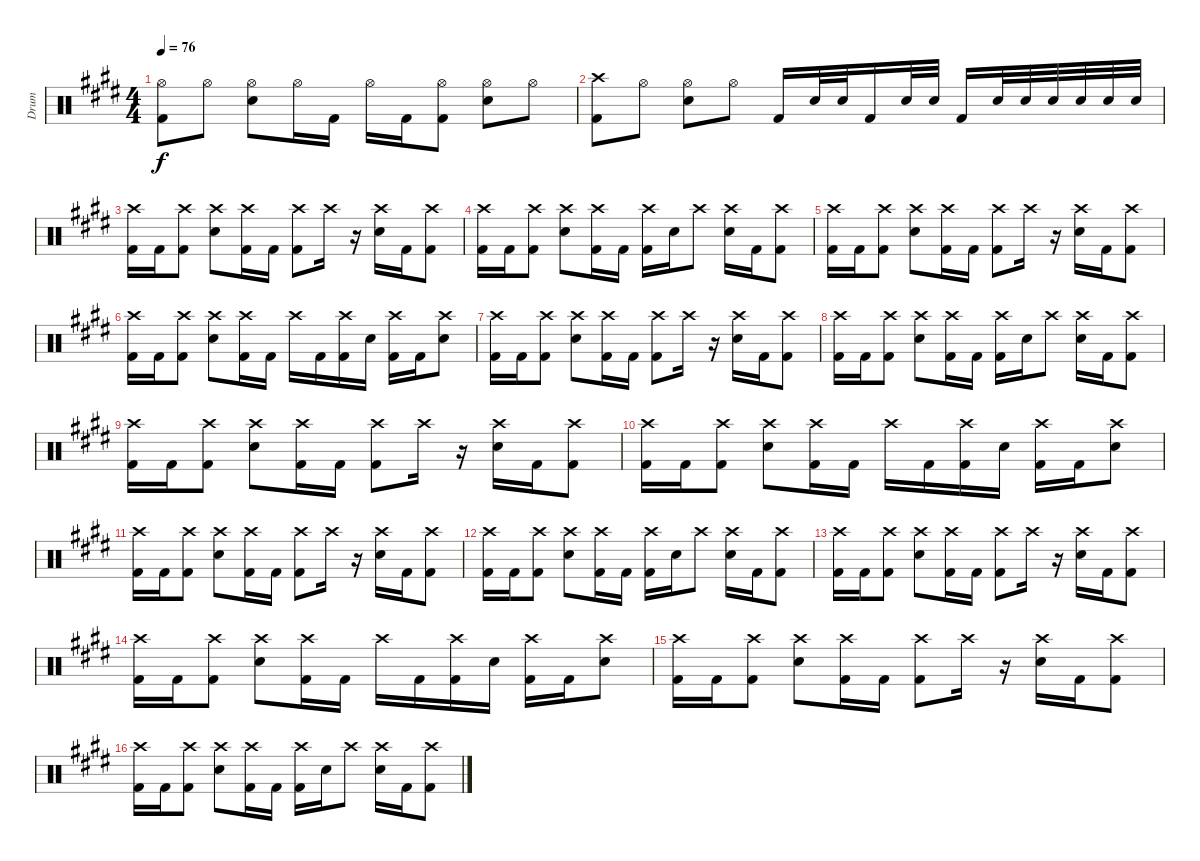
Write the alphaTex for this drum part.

\track ("Drum" "Drum") {instrument percussion}
\staff {score}
\articulation defaults
\ts (4 4)
\tempo 76
\clef neutral
\ks e
("Hi-Hat (open)" "Kick (hit) 2").8{dy f} "Hi-Hat (open)".8 ("Hi-Hat (open)" "Electric Snare (hit)").8 "Hi-Hat (open)".16 "Kick (hit) 2".16 "Hi-Hat (open)".16 "Kick (hit) 2".16 ("Hi-Hat (open)" "Kick (hit) 2").8 ("Hi-Hat (open)" "Electric Snare (hit)").8 "Hi-Hat (open)".8 |
("Crash high (hit)" "Kick (hit) 2").8 "Hi-Hat (open)".8 ("Hi-Hat (open)" "Electric Snare (hit)").8 "Hi-Hat (open)".8 "Kick (hit) 2".16 "Electric Snare (hit)".32 "Electric Snare (hit)".32 "Kick (hit) 2".16 "Electric Snare (hit)".32 "Electric Snare (hit)".32 "Kick (hit) 2".16 "Electric Snare (hit)".32 "Electric Snare (hit)".32 "Electric Snare (hit)".32 "Electric Snare (hit)".32 "Electric Snare (hit)".32 "Electric Snare (hit)".32 |
("Crash high (hit)" "Kick (hit) 2").16{volume 11} "Kick (hit) 2".16 ("Crash high (hit)" "Kick (hit) 2").8 ("Crash high (hit)" "Electric Snare (hit)").8 ("Crash high (hit)" "Kick (hit) 2").16 "Kick (hit) 2".16 ("Crash high (hit)" "Kick (hit) 2").8 "Crash high (hit)".16 r.16 ("Crash high (hit)" "Electric Snare (hit)").16 "Kick (hit) 2".16 ("Crash high (hit)" "Kick (hit) 2").8 |
("Crash high (hit)" "Kick (hit) 2").16 "Kick (hit) 2".16 ("Crash high (hit)" "Kick (hit) 2").8 ("Crash high (hit)" "Electric Snare (hit)").8 ("Crash high (hit)" "Kick (hit) 2").16 "Kick (hit) 2".16 ("Crash high (hit)" "Kick (hit) 2").16 "Electric Snare (hit)".16 "Crash high (hit)".8 ("Crash high (hit)" "Electric Snare (hit)").16 "Kick (hit) 2".16 ("Crash high (hit)" "Kick (hit) 2").8 |
("Crash high (hit)" "Kick (hit) 2").16{volume 11} "Kick (hit) 2".16 ("Crash high (hit)" "Kick (hit) 2").8 ("Crash high (hit)" "Electric Snare (hit)").8 ("Crash high (hit)" "Kick (hit) 2").16 "Kick (hit) 2".16 ("Crash high (hit)" "Kick (hit) 2").8 "Crash high (hit)".16 r.16 ("Crash high (hit)" "Electric Snare (hit)").16 "Kick (hit) 2".16 ("Crash high (hit)" "Kick (hit) 2").8 |
("Crash high (hit)" "Kick (hit) 2").16{volume 11} "Kick (hit) 2".16 ("Crash high (hit)" "Kick (hit) 2").8 ("Crash high (hit)" "Electric Snare (hit)").8 ("Crash high (hit)" "Kick (hit) 2").16 "Kick (hit) 2".16 "Crash high (hit)".16 "Kick (hit) 2".16 ("Crash high (hit)" "Kick (hit) 2").16 "Electric Snare (hit)".16 ("Crash high (hit)" "Kick (hit) 2").16 "Kick (hit) 2".16 ("Crash high (hit)" "Electric Snare (hit)").8 |
("Crash high (hit)" "Kick (hit) 2").16{volume 11} "Kick (hit) 2".16 ("Crash high (hit)" "Kick (hit) 2").8 ("Crash high (hit)" "Electric Snare (hit)").8 ("Crash high (hit)" "Kick (hit) 2").16 "Kick (hit) 2".16 ("Crash high (hit)" "Kick (hit) 2").8 "Crash high (hit)".16 r.16 ("Crash high (hit)" "Electric Snare (hit)").16 "Kick (hit) 2".16 ("Crash high (hit)" "Kick (hit) 2").8 |
("Crash high (hit)" "Kick (hit) 2").16 "Kick (hit) 2".16 ("Crash high (hit)" "Kick (hit) 2").8 ("Crash high (hit)" "Electric Snare (hit)").8 ("Crash high (hit)" "Kick (hit) 2").16 "Kick (hit) 2".16 ("Crash high (hit)" "Kick (hit) 2").16 "Electric Snare (hit)".16 "Crash high (hit)".8 ("Crash high (hit)" "Electric Snare (hit)").16 "Kick (hit) 2".16 ("Crash high (hit)" "Kick (hit) 2").8 |
("Crash high (hit)" "Kick (hit) 2").16{volume 11} "Kick (hit) 2".16 ("Crash high (hit)" "Kick (hit) 2").8 ("Crash high (hit)" "Electric Snare (hit)").8 ("Crash high (hit)" "Kick (hit) 2").16 "Kick (hit) 2".16 ("Crash high (hit)" "Kick (hit) 2").8 "Crash high (hit)".16 r.16 ("Crash high (hit)" "Electric Snare (hit)").16 "Kick (hit) 2".16 ("Crash high (hit)" "Kick (hit) 2").8 |
("Crash high (hit)" "Kick (hit) 2").16{volume 11} "Kick (hit) 2".16 ("Crash high (hit)" "Kick (hit) 2").8 ("Crash high (hit)" "Electric Snare (hit)").8 ("Crash high (hit)" "Kick (hit) 2").16 "Kick (hit) 2".16 "Crash high (hit)".16 "Kick (hit) 2".16 ("Crash high (hit)" "Kick (hit) 2").16 "Electric Snare (hit)".16 ("Crash high (hit)" "Kick (hit) 2").16 "Kick (hit) 2".16 ("Crash high (hit)" "Electric Snare (hit)").8 |
("Crash high (hit)" "Kick (hit) 2").16{volume 11} "Kick (hit) 2".16 ("Crash high (hit)" "Kick (hit) 2").8 ("Crash high (hit)" "Electric Snare (hit)").8 ("Crash high (hit)" "Kick (hit) 2").16 "Kick (hit) 2".16 ("Crash high (hit)" "Kick (hit) 2").8 "Crash high (hit)".16 r.16 ("Crash high (hit)" "Electric Snare (hit)").16 "Kick (hit) 2".16 ("Crash high (hit)" "Kick (hit) 2").8 |
("Crash high (hit)" "Kick (hit) 2").16 "Kick (hit) 2".16 ("Crash high (hit)" "Kick (hit) 2").8 ("Crash high (hit)" "Electric Snare (hit)").8 ("Crash high (hit)" "Kick (hit) 2").16 "Kick (hit) 2".16 ("Crash high (hit)" "Kick (hit) 2").16 "Electric Snare (hit)".16 "Crash high (hit)".8 ("Crash high (hit)" "Electric Snare (hit)").16 "Kick (hit) 2".16 ("Crash high (hit)" "Kick (hit) 2").8 |
("Crash high (hit)" "Kick (hit) 2").16{volume 11} "Kick (hit) 2".16 ("Crash high (hit)" "Kick (hit) 2").8 ("Crash high (hit)" "Electric Snare (hit)").8 ("Crash high (hit)" "Kick (hit) 2").16 "Kick (hit) 2".16 ("Crash high (hit)" "Kick (hit) 2").8 "Crash high (hit)".16 r.16 ("Crash high (hit)" "Electric Snare (hit)").16 "Kick (hit) 2".16 ("Crash high (hit)" "Kick (hit) 2").8 |
("Crash high (hit)" "Kick (hit) 2").16{volume 11} "Kick (hit) 2".16 ("Crash high (hit)" "Kick (hit) 2").8 ("Crash high (hit)" "Electric Snare (hit)").8 ("Crash high (hit)" "Kick (hit) 2").16 "Kick (hit) 2".16 "Crash high (hit)".16 "Kick (hit) 2".16 ("Crash high (hit)" "Kick (hit) 2").16 "Electric Snare (hit)".16 ("Crash high (hit)" "Kick (hit) 2").16 "Kick (hit) 2".16 ("Crash high (hit)" "Electric Snare (hit)").8 |
("Crash high (hit)" "Kick (hit) 2").16{volume 11} "Kick (hit) 2".16 ("Crash high (hit)" "Kick (hit) 2").8 ("Crash high (hit)" "Electric Snare (hit)").8 ("Crash high (hit)" "Kick (hit) 2").16 "Kick (hit) 2".16 ("Crash high (hit)" "Kick (hit) 2").8 "Crash high (hit)".16 r.16 ("Crash high (hit)" "Electric Snare (hit)").16 "Kick (hit) 2".16 ("Crash high (hit)" "Kick (hit) 2").8 |
("Crash high (hit)" "Kick (hit) 2").16 "Kick (hit) 2".16 ("Crash high (hit)" "Kick (hit) 2").8 ("Crash high (hit)" "Electric Snare (hit)").8 ("Crash high (hit)" "Kick (hit) 2").16 "Kick (hit) 2".16 ("Crash high (hit)" "Kick (hit) 2").16 "Electric Snare (hit)".16 "Crash high (hit)".8 ("Crash high (hit)" "Electric Snare (hit)").16 "Kick (hit) 2".16 ("Crash high (hit)" "Kick (hit) 2").8
